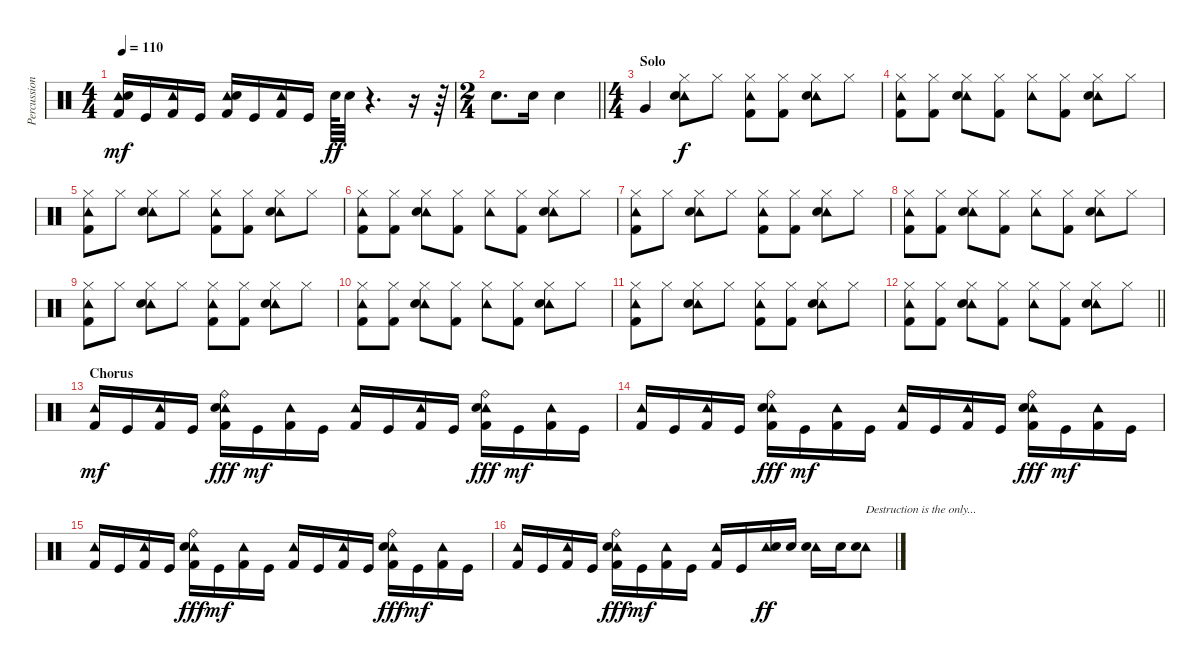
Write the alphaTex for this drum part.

\track ("Percussion" "Percussion") {instrument percussion}
\staff {score}
\articulation defaults
\ts (4 4)
\tempo 110
\clef neutral
\ks c
("Tambourine (hit)" "Snare (hit) 2" "Kick (hit) 2").16{dy mf} "Kick (hit)".16 ("Tambourine (hit)" "Kick (hit) 2").16 "Kick (hit)".16 ("Tambourine (hit)" "Snare (hit) 2" "Kick (hit) 2").16 "Kick (hit)".16 ("Tambourine (hit)" "Kick (hit) 2").16 "Kick (hit)".16 "Snare (hit) 2".64{dy ff} "Snare (hit) 2".32 r.4{d} r.16 r.64 |
\ts (2 4)
\barLineRight lightlight "Snare (hit) 2".8{d} "Snare (hit) 2".16 "Snare (hit) 2".4
|
\ts (4 4)
\section ("" "Solo")
"Very Low Tom (hit)".4 ("Tambourine (hit)" "Hi-Hat (closed)" "Snare (hit) 2").8{dy f} "Hi-Hat (closed)".8 ("Tambourine (hit)" "Hi-Hat (closed)" "Kick (hit) 2").8 ("Hi-Hat (closed)" "Kick (hit) 2").8 ("Tambourine (hit)" "Hi-Hat (closed)" "Snare (hit) 2").8 "Hi-Hat (closed)".8 |
("Tambourine (hit)" "Hi-Hat (closed)" "Kick (hit) 2").8 ("Hi-Hat (closed)" "Kick (hit) 2").8 ("Tambourine (hit)" "Hi-Hat (closed)" "Snare (hit) 2").8 ("Hi-Hat (closed)" "Kick (hit) 2").8 ("Tambourine (hit)" "Hi-Hat (closed)").8 ("Hi-Hat (closed)" "Kick (hit) 2").8 ("Tambourine (hit)" "Hi-Hat (closed)" "Snare (hit) 2").8 "Hi-Hat (closed)".8 |
("Tambourine (hit)" "Hi-Hat (closed)" "Kick (hit) 2").8 "Hi-Hat (closed)".8 ("Tambourine (hit)" "Hi-Hat (closed)" "Snare (hit) 2").8 "Hi-Hat (closed)".8 ("Tambourine (hit)" "Hi-Hat (closed)" "Kick (hit) 2").8 ("Hi-Hat (closed)" "Kick (hit) 2").8 ("Tambourine (hit)" "Hi-Hat (closed)" "Snare (hit) 2").8 "Hi-Hat (closed)".8 |
("Tambourine (hit)" "Hi-Hat (closed)" "Kick (hit) 2").8 ("Hi-Hat (closed)" "Kick (hit) 2").8 ("Tambourine (hit)" "Hi-Hat (closed)" "Snare (hit) 2").8 ("Hi-Hat (closed)" "Kick (hit) 2").8 ("Tambourine (hit)" "Hi-Hat (closed)").8 ("Hi-Hat (closed)" "Kick (hit) 2").8 ("Tambourine (hit)" "Hi-Hat (closed)" "Snare (hit) 2").8 "Hi-Hat (closed)".8 |
("Tambourine (hit)" "Hi-Hat (closed)" "Kick (hit) 2").8 "Hi-Hat (closed)".8 ("Tambourine (hit)" "Hi-Hat (closed)" "Snare (hit) 2").8 "Hi-Hat (closed)".8 ("Tambourine (hit)" "Hi-Hat (closed)" "Kick (hit) 2").8 ("Hi-Hat (closed)" "Kick (hit) 2").8 ("Tambourine (hit)" "Hi-Hat (closed)" "Snare (hit) 2").8 "Hi-Hat (closed)".8 |
("Tambourine (hit)" "Hi-Hat (closed)" "Kick (hit) 2").8 ("Hi-Hat (closed)" "Kick (hit) 2").8 ("Tambourine (hit)" "Hi-Hat (closed)" "Snare (hit) 2").8 ("Hi-Hat (closed)" "Kick (hit) 2").8 ("Tambourine (hit)" "Hi-Hat (closed)").8 ("Hi-Hat (closed)" "Kick (hit) 2").8 ("Tambourine (hit)" "Hi-Hat (closed)" "Snare (hit) 2").8 "Hi-Hat (closed)".8 |
("Tambourine (hit)" "Hi-Hat (closed)" "Kick (hit) 2").8 "Hi-Hat (closed)".8 ("Tambourine (hit)" "Hi-Hat (closed)" "Snare (hit) 2").8 "Hi-Hat (closed)".8 ("Tambourine (hit)" "Hi-Hat (closed)" "Kick (hit) 2").8 ("Hi-Hat (closed)" "Kick (hit) 2").8 ("Tambourine (hit)" "Hi-Hat (closed)" "Snare (hit) 2").8 "Hi-Hat (closed)".8 |
("Tambourine (hit)" "Hi-Hat (closed)" "Kick (hit) 2").8 ("Hi-Hat (closed)" "Kick (hit) 2").8 ("Tambourine (hit)" "Hi-Hat (closed)" "Snare (hit) 2").8 ("Hi-Hat (closed)" "Kick (hit) 2").8 ("Tambourine (hit)" "Hi-Hat (closed)").8 ("Hi-Hat (closed)" "Kick (hit) 2").8 ("Tambourine (hit)" "Hi-Hat (closed)" "Snare (hit) 2").8 "Hi-Hat (closed)".8 |
("Tambourine (hit)" "Hi-Hat (closed)" "Kick (hit) 2").8 "Hi-Hat (closed)".8 ("Tambourine (hit)" "Hi-Hat (closed)" "Snare (hit) 2").8 "Hi-Hat (closed)".8 ("Tambourine (hit)" "Hi-Hat (closed)" "Kick (hit) 2").8 ("Hi-Hat (closed)" "Kick (hit) 2").8 ("Tambourine (hit)" "Hi-Hat (closed)" "Snare (hit) 2").8 "Hi-Hat (closed)".8 |
\barLineRight lightlight
("Tambourine (hit)" "Hi-Hat (closed)" "Kick (hit) 2").8 ("Hi-Hat (closed)" "Kick (hit) 2").8 ("Tambourine (hit)" "Hi-Hat (closed)" "Snare (hit) 2").8 ("Hi-Hat (closed)" "Kick (hit) 2").8 ("Tambourine (hit)" "Hi-Hat (closed)").8 ("Hi-Hat (closed)" "Kick (hit) 2").8 ("Tambourine (hit)" "Hi-Hat (closed)" "Snare (hit) 2").8 "Hi-Hat (closed)".8 |
\section ("" "Chorus")
("Tambourine (hit)" "Kick (hit) 2").16{dy mf} "Kick (hit)".16 ("Tambourine (hit)" "Kick (hit) 2").16 "Kick (hit)".16 ("Tambourine (hit)" "Snare (hit) 2" "Kick (hit) 2" "Ride (bell)").16{dy fff} "Kick (hit)".16{dy mf} ("Tambourine (hit)" "Kick (hit) 2").16 "Kick (hit)".16 ("Tambourine (hit)" "Kick (hit) 2").16 "Kick (hit)".16 ("Tambourine (hit)" "Kick (hit) 2").16 "Kick (hit)".16 ("Tambourine (hit)" "Snare (hit) 2" "Kick (hit) 2" "Ride (bell)").16{dy fff} "Kick (hit)".16{dy mf} ("Tambourine (hit)" "Kick (hit) 2").16 "Kick (hit)".16 |
("Tambourine (hit)" "Kick (hit) 2").16 "Kick (hit)".16 ("Tambourine (hit)" "Kick (hit) 2").16 "Kick (hit)".16 ("Tambourine (hit)" "Snare (hit) 2" "Kick (hit) 2" "Ride (bell)").16{dy fff} "Kick (hit)".16{dy mf} ("Tambourine (hit)" "Kick (hit) 2").16 "Kick (hit)".16 ("Tambourine (hit)" "Kick (hit) 2").16 "Kick (hit)".16 ("Tambourine (hit)" "Kick (hit) 2").16 "Kick (hit)".16 ("Tambourine (hit)" "Snare (hit) 2" "Kick (hit) 2" "Ride (bell)").16{dy fff} "Kick (hit)".16{dy mf} ("Tambourine (hit)" "Kick (hit) 2").16 "Kick (hit)".16 |
("Tambourine (hit)" "Kick (hit) 2").16 "Kick (hit)".16 ("Tambourine (hit)" "Kick (hit) 2").16 "Kick (hit)".16 ("Tambourine (hit)" "Snare (hit) 2" "Kick (hit) 2" "Ride (bell)").16{dy fff} "Kick (hit)".16{dy mf} ("Tambourine (hit)" "Kick (hit) 2").16 "Kick (hit)".16 ("Tambourine (hit)" "Kick (hit) 2").16 "Kick (hit)".16 ("Tambourine (hit)" "Kick (hit) 2").16 "Kick (hit)".16 ("Tambourine (hit)" "Snare (hit) 2" "Kick (hit) 2" "Ride (bell)").16{dy fff} "Kick (hit)".16{dy mf} ("Tambourine (hit)" "Kick (hit) 2").16 "Kick (hit)".16 |
("Tambourine (hit)" "Kick (hit) 2").16 "Kick (hit)".16 ("Tambourine (hit)" "Kick (hit) 2").16 "Kick (hit)".16 ("Tambourine (hit)" "Snare (hit) 2" "Kick (hit) 2" "Ride (bell)").16{dy fff} "Kick (hit)".16{dy mf} ("Tambourine (hit)" "Kick (hit) 2").16 "Kick (hit)".16 ("Tambourine (hit)" "Kick (hit) 2").16 "Kick (hit)".16 ("Tambourine (hit)" "Snare (hit) 2").16{dy ff} "Snare (hit) 2".16 ("Tambourine (hit)" "Snare (hit) 2").16 "Snare (hit) 2".16 ("Tambourine (hit)" "Snare (hit) 2").8{txt "Destruction is the only..."}
